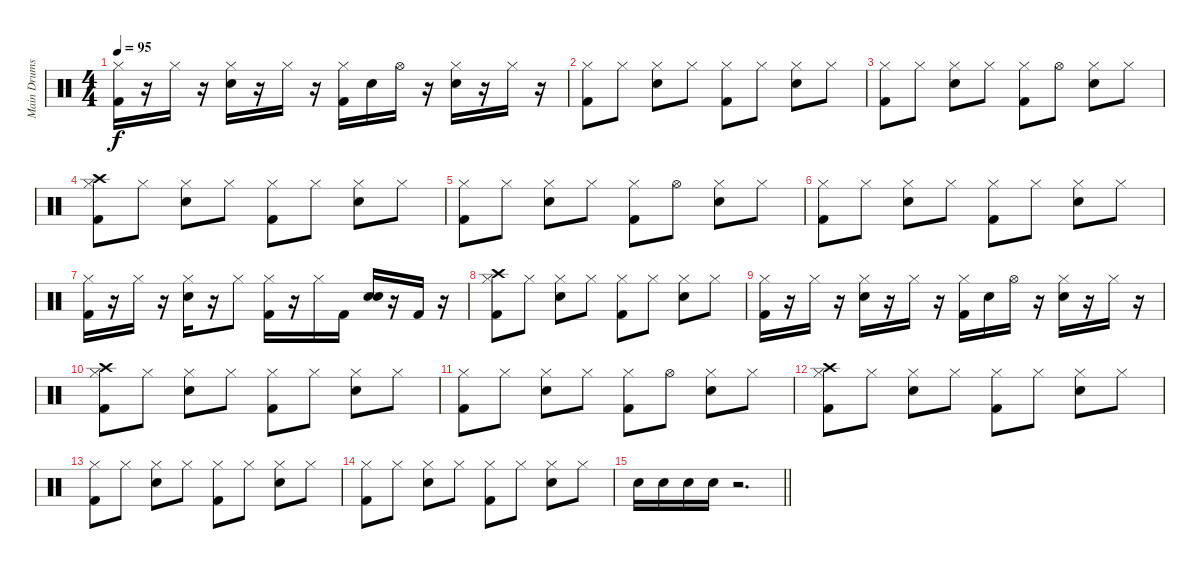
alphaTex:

\track ("Main Drums" "Main Drums") {instrument percussion}
\staff {score}
\articulation defaults
\ts (4 4)
\tempo 95
\clef neutral
\ks c
("Hi-Hat (closed)" "Kick (hit) 2").16{dy f} r.16 "Hi-Hat (closed)".16 r.16 ("Hi-Hat (closed)" "Electric Snare (hit)").16 r.16 "Hi-Hat (closed)".16 r.16 ("Hi-Hat (closed)" "Kick (hit) 2").16 "Electric Snare (hit)".16 "Hi-Hat (open)".16 r.16 ("Hi-Hat (closed)" "Electric Snare (hit)").16 r.16 "Hi-Hat (closed)".16 r.16 |
("Hi-Hat (closed)" "Kick (hit) 2").8 "Hi-Hat (closed)".8 ("Hi-Hat (closed)" "Electric Snare (hit)").8 "Hi-Hat (closed)".8 ("Hi-Hat (closed)" "Kick (hit) 2").8 "Hi-Hat (closed)".8 ("Hi-Hat (closed)" "Electric Snare (hit)").8 "Hi-Hat (closed)".8 |
("Hi-Hat (closed)" "Kick (hit) 2").8 "Hi-Hat (closed)".8 ("Hi-Hat (closed)" "Electric Snare (hit)").8 "Hi-Hat (closed)".8 ("Hi-Hat (closed)" "Kick (hit) 2").8 "Hi-Hat (open)".8 ("Hi-Hat (closed)" "Electric Snare (hit)").8 "Hi-Hat (closed)".8 |
("Crash high (hit)" "Hi-Hat (closed)" "Kick (hit) 2").8 "Hi-Hat (closed)".8 ("Hi-Hat (closed)" "Electric Snare (hit)").8 "Hi-Hat (closed)".8 ("Hi-Hat (closed)" "Kick (hit) 2").8 "Hi-Hat (closed)".8 ("Hi-Hat (closed)" "Electric Snare (hit)").8 "Hi-Hat (closed)".8 |
("Hi-Hat (closed)" "Kick (hit) 2").8 "Hi-Hat (closed)".8 ("Hi-Hat (closed)" "Electric Snare (hit)").8 "Hi-Hat (closed)".8 ("Hi-Hat (closed)" "Kick (hit) 2").8 "Hi-Hat (open)".8 ("Hi-Hat (closed)" "Electric Snare (hit)").8 "Hi-Hat (closed)".8 |
("Hi-Hat (closed)" "Kick (hit) 2").8 "Hi-Hat (closed)".8 ("Hi-Hat (closed)" "Electric Snare (hit)").8 "Hi-Hat (closed)".8 ("Hi-Hat (closed)" "Kick (hit) 2").8 "Hi-Hat (closed)".8 ("Hi-Hat (closed)" "Electric Snare (hit)").8 "Hi-Hat (closed)".8 |
("Hi-Hat (closed)" "Kick (hit) 2").16 r.16 "Hi-Hat (closed)".16 r.16 ("Hi-Hat (closed)" "Electric Snare (hit)").16 r.16 "Hi-Hat (closed)".8 ("Hi-Hat (closed)" "Kick (hit) 2").16 r.16 "Hi-Hat (closed)".16 "Kick (hit) 2".16 ("Electric Snare (hit)" "Electric Snare (hit)").16{bu 120} r.16 "Kick (hit) 2".16 r.16 |
("Crash high (hit)" "Hi-Hat (closed)" "Kick (hit) 2").8 "Hi-Hat (closed)".8 ("Hi-Hat (closed)" "Electric Snare (hit)").8 "Hi-Hat (closed)".8 ("Hi-Hat (closed)" "Kick (hit) 2").8 "Hi-Hat (closed)".8 ("Hi-Hat (closed)" "Electric Snare (hit)").8 "Hi-Hat (closed)".8 |
("Hi-Hat (closed)" "Kick (hit) 2").16 r.16 "Hi-Hat (closed)".16 r.16 ("Hi-Hat (closed)" "Electric Snare (hit)").16 r.16 "Hi-Hat (closed)".16 r.16 ("Hi-Hat (closed)" "Kick (hit) 2").16 "Electric Snare (hit)".16 "Hi-Hat (open)".16 r.16 ("Hi-Hat (closed)" "Electric Snare (hit)").16 r.16 "Hi-Hat (closed)".16 r.16 |
("Crash high (hit)" "Hi-Hat (closed)" "Kick (hit) 2").8 "Hi-Hat (closed)".8 ("Hi-Hat (closed)" "Electric Snare (hit)").8 "Hi-Hat (closed)".8 ("Hi-Hat (closed)" "Kick (hit) 2").8 "Hi-Hat (closed)".8 ("Hi-Hat (closed)" "Electric Snare (hit)").8 "Hi-Hat (closed)".8 |
("Hi-Hat (closed)" "Kick (hit) 2").8 "Hi-Hat (closed)".8 ("Hi-Hat (closed)" "Electric Snare (hit)").8 "Hi-Hat (closed)".8 ("Hi-Hat (closed)" "Kick (hit) 2").8 "Hi-Hat (open)".8 ("Hi-Hat (closed)" "Electric Snare (hit)").8 "Hi-Hat (closed)".8 |
("Crash high (hit)" "Hi-Hat (closed)" "Kick (hit) 2").8 "Hi-Hat (closed)".8 ("Hi-Hat (closed)" "Electric Snare (hit)").8 "Hi-Hat (closed)".8 ("Hi-Hat (closed)" "Kick (hit) 2").8 "Hi-Hat (closed)".8 ("Hi-Hat (closed)" "Electric Snare (hit)").8 "Hi-Hat (closed)".8 |
("Hi-Hat (closed)" "Kick (hit) 2").8 "Hi-Hat (closed)".8 ("Hi-Hat (closed)" "Electric Snare (hit)").8 "Hi-Hat (closed)".8 ("Hi-Hat (closed)" "Kick (hit) 2").8 "Hi-Hat (closed)".8 ("Hi-Hat (closed)" "Electric Snare (hit)").8 "Hi-Hat (closed)".8 |
("Hi-Hat (closed)" "Kick (hit) 2").8 "Hi-Hat (closed)".8 ("Hi-Hat (closed)" "Electric Snare (hit)").8 "Hi-Hat (closed)".8 ("Hi-Hat (closed)" "Kick (hit) 2").8 "Hi-Hat (closed)".8 ("Hi-Hat (closed)" "Electric Snare (hit)").8 "Hi-Hat (closed)".8 |
\barLineRight lightlight "Electric Snare (hit)".16 "Electric Snare (hit)".16 "Electric Snare (hit)".16 "Electric Snare (hit)".16
r.2{d}
